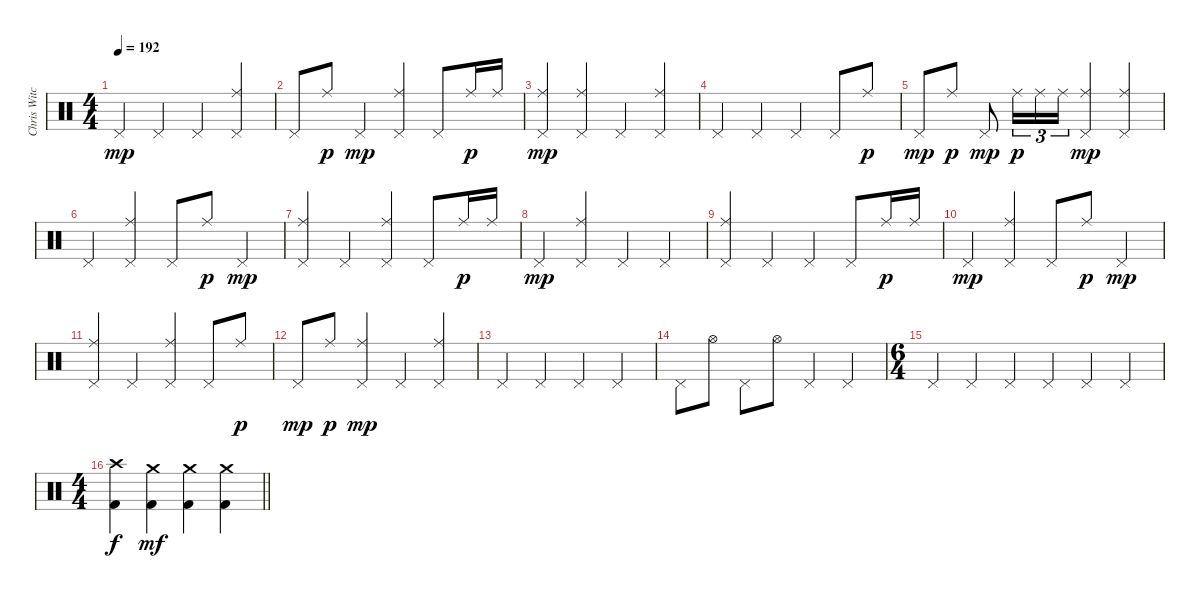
\track ("Chris Witchunter" "Chris Witc") {instrument percussion}
\staff {score}
\articulation defaults
\ts (4 4)
\tempo 192
\clef neutral
\ks c "Pedal Hi-Hat (hit)".4{dy mp} "Pedal Hi-Hat (hit)".4 "Pedal Hi-Hat (hit)".4
("Ride (middle)" "Pedal Hi-Hat (hit)").4 |
"Pedal Hi-Hat (hit)".8 "Ride (middle)".8{dy p} "Pedal Hi-Hat (hit)".4{dy mp} ("Ride (middle)" "Pedal Hi-Hat (hit)").4 "Pedal Hi-Hat (hit)".8 "Ride (middle)".16{dy p} "Ride (middle)".16 |
("Ride (middle)" "Pedal Hi-Hat (hit)").4{dy mp} ("Ride (middle)" "Pedal Hi-Hat (hit)").4 "Pedal Hi-Hat (hit)".4 ("Ride (middle)" "Pedal Hi-Hat (hit)").4 |
"Pedal Hi-Hat (hit)".4 "Pedal Hi-Hat (hit)".4 "Pedal Hi-Hat (hit)".4 "Pedal Hi-Hat (hit)".8 "Ride (middle)".8{dy p} |
"Pedal Hi-Hat (hit)".8{dy mp} "Ride (middle)".8{dy p} "Pedal Hi-Hat (hit)".8{dy mp} "Ride (middle)".16{tu (3 2) dy p} "Ride (middle)".16{tu (3 2)} "Ride (middle)".16{tu (3 2)} ("Ride (middle)" "Pedal Hi-Hat (hit)").4{dy mp} ("Ride (middle)" "Pedal Hi-Hat (hit)").4 |
"Pedal Hi-Hat (hit)".4 ("Ride (middle)" "Pedal Hi-Hat (hit)").4 "Pedal Hi-Hat (hit)".8 "Ride (middle)".8{dy p} "Pedal Hi-Hat (hit)".4{dy mp} |
("Ride (middle)" "Pedal Hi-Hat (hit)").4 "Pedal Hi-Hat (hit)".4 ("Ride (middle)" "Pedal Hi-Hat (hit)").4 "Pedal Hi-Hat (hit)".8 "Ride (middle)".16{dy p} "Ride (middle)".16 |
"Pedal Hi-Hat (hit)".4{dy mp} ("Ride (middle)" "Pedal Hi-Hat (hit)").4 "Pedal Hi-Hat (hit)".4 "Pedal Hi-Hat (hit)".4 |
("Ride (middle)" "Pedal Hi-Hat (hit)").4 "Pedal Hi-Hat (hit)".4 "Pedal Hi-Hat (hit)".4 "Pedal Hi-Hat (hit)".8 "Ride (middle)".16{dy p} "Ride (middle)".16 |
"Pedal Hi-Hat (hit)".4{dy mp} ("Ride (middle)" "Pedal Hi-Hat (hit)").4 "Pedal Hi-Hat (hit)".8 "Ride (middle)".8{dy p} "Pedal Hi-Hat (hit)".4{dy mp} |
("Ride (middle)" "Pedal Hi-Hat (hit)").4 "Pedal Hi-Hat (hit)".4 ("Ride (middle)" "Pedal Hi-Hat (hit)").4 "Pedal Hi-Hat (hit)".8 "Ride (middle)".8{dy p} |
"Pedal Hi-Hat (hit)".8{dy mp} "Ride (middle)".8{dy p} ("Ride (middle)" "Pedal Hi-Hat (hit)").4{dy mp} "Pedal Hi-Hat (hit)".4 ("Ride (middle)" "Pedal Hi-Hat (hit)").4 |
"Pedal Hi-Hat (hit)".4 "Pedal Hi-Hat (hit)".4 "Pedal Hi-Hat (hit)".4 "Pedal Hi-Hat (hit)".4 |
"Pedal Hi-Hat (hit)".8 "Hi-Hat (open)".8 "Pedal Hi-Hat (hit)".8 "Hi-Hat (open)".8 "Pedal Hi-Hat (hit)".4 "Pedal Hi-Hat (hit)".4 |
\ts (6 4)
"Pedal Hi-Hat (hit)".4 "Pedal Hi-Hat (hit)".4 "Pedal Hi-Hat (hit)".4 "Pedal Hi-Hat (hit)".4 "Pedal Hi-Hat (hit)".4 "Pedal Hi-Hat (hit)".4 |
\ts (4 4)
\barLineRight lightlight
("Crash high (hit)" "Kick (hit) 2").4{dy f} ("Crash medium (hit)" "Kick (hit) 2").4{dy mf} ("Crash medium (hit)" "Kick (hit) 2").4 ("Crash medium (hit)" "Kick (hit) 2").4
